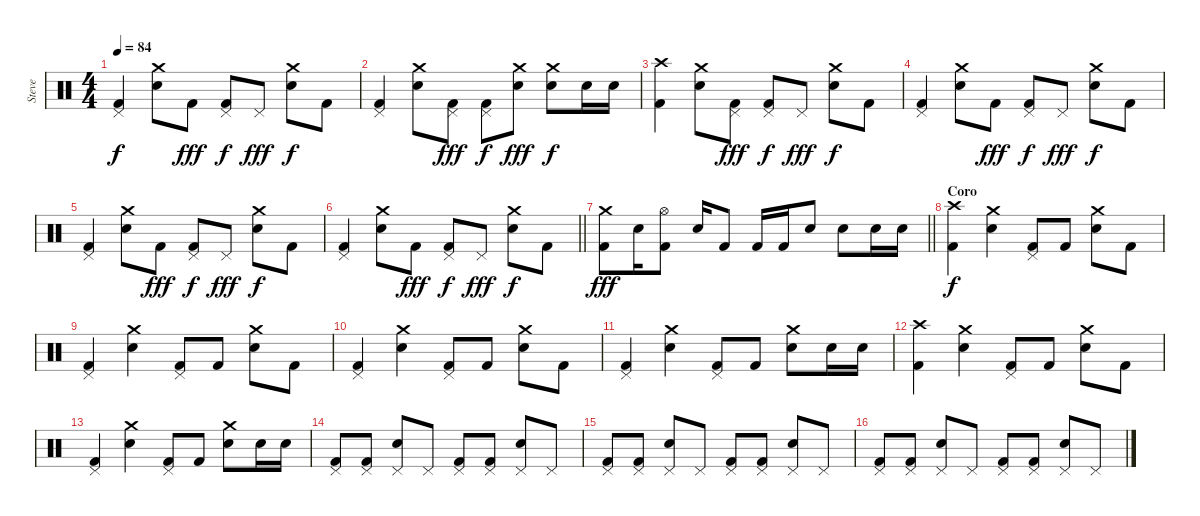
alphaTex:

\track ("Steve" "Steve") {instrument percussion}
\staff {score}
\articulation defaults
\ts (4 4)
\tempo 84
\clef neutral
\ks c
("Pedal Hi-Hat (hit)" "Kick (hit) 2").4{dy f} ("Crash medium (hit)" "Snare (hit) 2").8 "Kick (hit) 2".8{dy fff} ("Pedal Hi-Hat (hit)" "Kick (hit) 2").8{dy f} "Pedal Hi-Hat (hit)".8{dy fff} ("Crash medium (hit)" "Snare (hit) 2").8{dy f} "Kick (hit) 2".8 |
("Pedal Hi-Hat (hit)" "Kick (hit) 2").4 ("Crash medium (hit)" "Snare (hit) 2").8 ("Pedal Hi-Hat (hit)" "Kick (hit) 2").8{dy fff} ("Pedal Hi-Hat (hit)" "Kick (hit) 2").8{dy f} ("Crash medium (hit)" "Snare (hit) 2").8{dy fff} ("Crash medium (hit)" "Snare (hit) 2").8{dy f} "Snare (hit) 2".16 "Snare (hit) 2".16 |
("Crash high (hit)" "Kick (hit) 2").4 ("Crash medium (hit)" "Snare (hit) 2").8 ("Pedal Hi-Hat (hit)" "Kick (hit) 2").8{dy fff} ("Pedal Hi-Hat (hit)" "Kick (hit) 2").8{dy f} "Pedal Hi-Hat (hit)".8{dy fff} ("Crash medium (hit)" "Snare (hit) 2").8{dy f} "Kick (hit) 2".8 |
("Pedal Hi-Hat (hit)" "Kick (hit) 2").4 ("Crash medium (hit)" "Snare (hit) 2").8 "Kick (hit) 2".8{dy fff} ("Pedal Hi-Hat (hit)" "Kick (hit) 2").8{dy f} "Pedal Hi-Hat (hit)".8{dy fff} ("Crash medium (hit)" "Snare (hit) 2").8{dy f} "Kick (hit) 2".8 |
("Pedal Hi-Hat (hit)" "Kick (hit) 2").4 ("Crash medium (hit)" "Snare (hit) 2").8 "Kick (hit) 2".8{dy fff} ("Pedal Hi-Hat (hit)" "Kick (hit) 2").8{dy f} "Pedal Hi-Hat (hit)".8{dy fff} ("Crash medium (hit)" "Snare (hit) 2").8{dy f} "Kick (hit) 2".8 |
\barLineRight lightlight
("Pedal Hi-Hat (hit)" "Kick (hit) 2").4 ("Crash medium (hit)" "Snare (hit) 2").8 "Kick (hit) 2".8{dy fff} ("Pedal Hi-Hat (hit)" "Kick (hit) 2").8{dy f} "Pedal Hi-Hat (hit)".8{dy fff} ("Crash medium (hit)" "Snare (hit) 2").8{dy f} "Kick (hit) 2".8 |
\section ("" "")
\barLineRight lightlight
("Crash medium (hit)" "Kick (hit) 2").8{dy fff} "Snare (hit) 2".16 ("Hi-Hat (open)" "Kick (hit) 2").8 "Snare (hit) 2".16 "Kick (hit) 2".8 "Kick (hit) 2".16 "Kick (hit) 2".16 "Snare (hit) 2".8 "Snare (hit) 2".8 "Snare (hit) 2".16 "Snare (hit) 2".16 |
\section ("" "Coro")
("Crash high (hit)" "Kick (hit) 2").4{dy f} ("Crash medium (hit)" "Snare (hit) 2").4 ("Pedal Hi-Hat (hit)" "Kick (hit) 2").8 "Kick (hit) 2".8 ("Crash medium (hit)" "Snare (hit) 2").8 "Kick (hit) 2".8 |
("Pedal Hi-Hat (hit)" "Kick (hit) 2").4 ("Crash medium (hit)" "Snare (hit) 2").4 ("Pedal Hi-Hat (hit)" "Kick (hit) 2").8 "Kick (hit) 2".8 ("Crash medium (hit)" "Snare (hit) 2").8 "Kick (hit) 2".8 |
("Pedal Hi-Hat (hit)" "Kick (hit) 2").4 ("Crash medium (hit)" "Snare (hit) 2").4 ("Pedal Hi-Hat (hit)" "Kick (hit) 2").8 "Kick (hit) 2".8 ("Crash medium (hit)" "Snare (hit) 2").8 "Kick (hit) 2".8 |
("Pedal Hi-Hat (hit)" "Kick (hit) 2").4 ("Crash medium (hit)" "Snare (hit) 2").4 ("Pedal Hi-Hat (hit)" "Kick (hit) 2").8 "Kick (hit) 2".8 ("Crash medium (hit)" "Snare (hit) 2").8 "Snare (hit) 2".16 "Snare (hit) 2".16 |
("Crash high (hit)" "Kick (hit) 2").4 ("Crash medium (hit)" "Snare (hit) 2").4 ("Pedal Hi-Hat (hit)" "Kick (hit) 2").8 "Kick (hit) 2".8 ("Crash medium (hit)" "Snare (hit) 2").8 "Kick (hit) 2".8 |
("Pedal Hi-Hat (hit)" "Kick (hit) 2").4 ("Crash medium (hit)" "Snare (hit) 2").4 ("Pedal Hi-Hat (hit)" "Kick (hit) 2").8 "Kick (hit) 2".8 ("Crash medium (hit)" "Snare (hit) 2").8 "Snare (hit) 2".16 "Snare (hit) 2".16 |
("Pedal Hi-Hat (hit)" "Kick (hit) 2").8 ("Pedal Hi-Hat (hit)" "Kick (hit) 2").8 ("Pedal Hi-Hat (hit)" "Snare (hit) 2").8 "Pedal Hi-Hat (hit)".8 ("Pedal Hi-Hat (hit)" "Kick (hit) 2").8 ("Pedal Hi-Hat (hit)" "Kick (hit) 2").8 ("Pedal Hi-Hat (hit)" "Snare (hit) 2").8 "Pedal Hi-Hat (hit)".8 |
("Pedal Hi-Hat (hit)" "Kick (hit) 2").8 ("Pedal Hi-Hat (hit)" "Kick (hit) 2").8 ("Pedal Hi-Hat (hit)" "Snare (hit) 2").8 "Pedal Hi-Hat (hit)".8 ("Pedal Hi-Hat (hit)" "Kick (hit) 2").8 ("Pedal Hi-Hat (hit)" "Kick (hit) 2").8 ("Pedal Hi-Hat (hit)" "Snare (hit) 2").8 "Pedal Hi-Hat (hit)".8 |
("Pedal Hi-Hat (hit)" "Kick (hit) 2").8 ("Pedal Hi-Hat (hit)" "Kick (hit) 2").8 ("Pedal Hi-Hat (hit)" "Snare (hit) 2").8 "Pedal Hi-Hat (hit)".8 ("Pedal Hi-Hat (hit)" "Kick (hit) 2").8 ("Pedal Hi-Hat (hit)" "Kick (hit) 2").8 ("Pedal Hi-Hat (hit)" "Snare (hit) 2").8 "Pedal Hi-Hat (hit)".8
